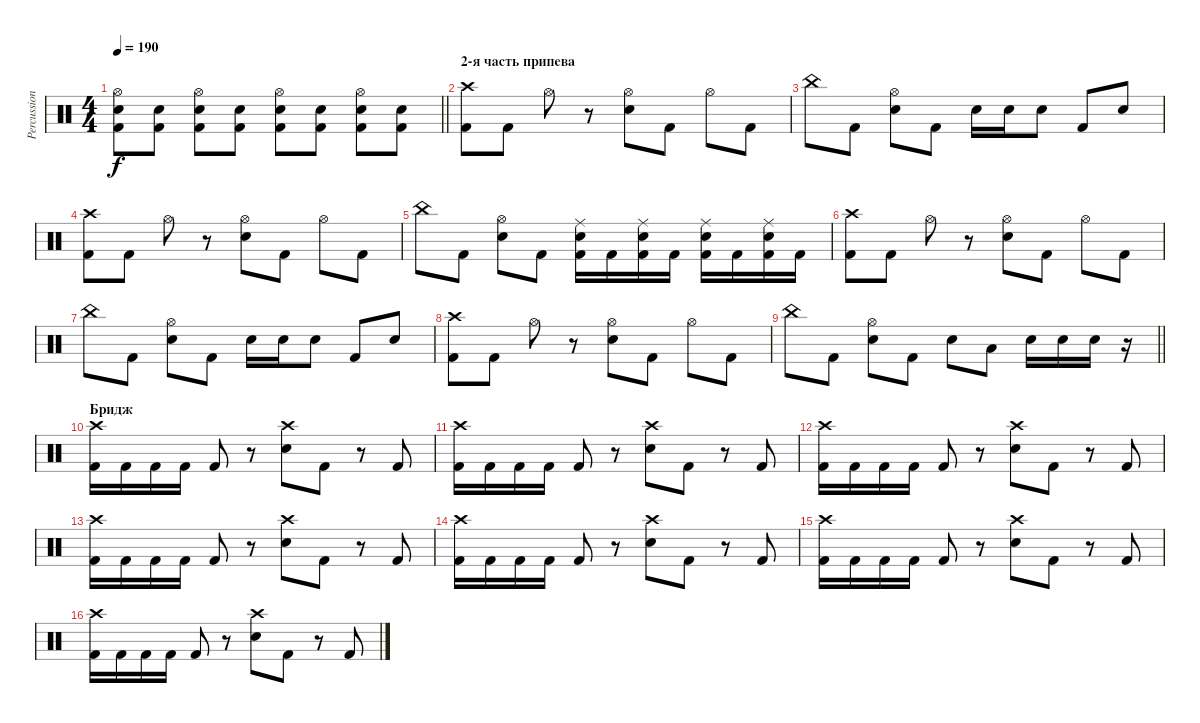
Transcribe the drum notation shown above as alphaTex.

\track ("Percussions" "Percussion") {instrument percussion}
\staff {score}
\articulation defaults
\ts (4 4)
\tempo 190
\clef neutral
\barLineRight lightlight
\ks c
("Kick (hit) 2" "Electric Snare (hit)" "Hi-Hat (open)").8{dy f} ("Kick (hit) 2" "Electric Snare (hit)").8 ("Kick (hit) 2" "Electric Snare (hit)" "Hi-Hat (open)").8 ("Kick (hit) 2" "Electric Snare (hit)").8 ("Kick (hit) 2" "Electric Snare (hit)" "Hi-Hat (open)").8 ("Kick (hit) 2" "Electric Snare (hit)").8 ("Kick (hit) 2" "Electric Snare (hit)" "Hi-Hat (open)").8 ("Kick (hit) 2" "Electric Snare (hit)").8 |
\section ("" "2-я часть припева")
("Kick (hit) 2" "Crash high (hit)").8 "Kick (hit) 2".8 "Hi-Hat (open)".8 r.8 ("Electric Snare (hit)" "Hi-Hat (open)").8 "Kick (hit) 2".8 "Hi-Hat (open)".8 "Kick (hit) 2".8 |
"China (hit)".8 "Kick (hit) 2".8 ("Electric Snare (hit)" "Hi-Hat (open)").8 "Kick (hit) 2".8 "Electric Snare (hit)".16 "Electric Snare (hit)".16 "Electric Snare (hit)".8 "Kick (hit) 2".8 "Electric Snare (hit)".8 |
("Kick (hit) 2" "Crash high (hit)").8 "Kick (hit) 2".8 "Hi-Hat (open)".8 r.8 ("Electric Snare (hit)" "Hi-Hat (open)").8 "Kick (hit) 2".8 "Hi-Hat (open)".8 "Kick (hit) 2".8 |
"China (hit)".8 "Kick (hit) 2".8 ("Electric Snare (hit)" "Hi-Hat (open)").8 "Kick (hit) 2".8 ("Kick (hit) 2" "Electric Snare (hit)" "Ride (middle)").16 "Kick (hit) 2".16 ("Kick (hit) 2" "Electric Snare (hit)" "Ride (middle)").16 "Kick (hit) 2".16 ("Kick (hit) 2" "Electric Snare (hit)" "Ride (middle)").16 "Kick (hit) 2".16 ("Kick (hit) 2" "Electric Snare (hit)" "Ride (middle)").16 "Kick (hit) 2".16 |
("Kick (hit) 2" "Crash high (hit)").8 "Kick (hit) 2".8 "Hi-Hat (open)".8 r.8 ("Electric Snare (hit)" "Hi-Hat (open)").8 "Kick (hit) 2".8 "Hi-Hat (open)".8 "Kick (hit) 2".8 |
"China (hit)".8 "Kick (hit) 2".8 ("Electric Snare (hit)" "Hi-Hat (open)").8 "Kick (hit) 2".8 "Electric Snare (hit)".16 "Electric Snare (hit)".16 "Electric Snare (hit)".8 "Kick (hit) 2".8 "Electric Snare (hit)".8 |
("Kick (hit) 2" "Crash high (hit)").8 "Kick (hit) 2".8 "Hi-Hat (open)".8 r.8 ("Electric Snare (hit)" "Hi-Hat (open)").8 "Kick (hit) 2".8 "Hi-Hat (open)".8 "Kick (hit) 2".8 |
\barLineRight lightlight "China (hit)".8 "Kick (hit) 2".8
("Electric Snare (hit)" "Hi-Hat (open)").8 "Kick (hit) 2".8 "Electric Snare (hit)".8 "Low Floor Tom (hit)".8 "Electric Snare (hit)".16 "Electric Snare (hit)".16 "Electric Snare (hit)".16 r.16 |
\section ("" "Бридж")
("Crash high (hit)" "Kick (hit) 2").16 "Kick (hit) 2".16 "Kick (hit) 2".16 "Kick (hit) 2".16 "Kick (hit) 2".8 r.8 ("Crash high (hit)" "Electric Snare (hit)").8 "Kick (hit) 2".8 r.8 "Kick (hit) 2".8 |
("Crash high (hit)" "Kick (hit) 2").16 "Kick (hit) 2".16 "Kick (hit) 2".16 "Kick (hit) 2".16 "Kick (hit) 2".8 r.8 ("Crash high (hit)" "Electric Snare (hit)").8 "Kick (hit) 2".8 r.8 "Kick (hit) 2".8 |
("Crash high (hit)" "Kick (hit) 2").16 "Kick (hit) 2".16 "Kick (hit) 2".16 "Kick (hit) 2".16 "Kick (hit) 2".8 r.8 ("Crash high (hit)" "Electric Snare (hit)").8 "Kick (hit) 2".8 r.8 "Kick (hit) 2".8 |
("Crash high (hit)" "Kick (hit) 2").16 "Kick (hit) 2".16 "Kick (hit) 2".16 "Kick (hit) 2".16 "Kick (hit) 2".8 r.8 ("Crash high (hit)" "Electric Snare (hit)").8 "Kick (hit) 2".8 r.8 "Kick (hit) 2".8 |
("Crash high (hit)" "Kick (hit) 2").16 "Kick (hit) 2".16 "Kick (hit) 2".16 "Kick (hit) 2".16 "Kick (hit) 2".8 r.8 ("Crash high (hit)" "Electric Snare (hit)").8 "Kick (hit) 2".8 r.8 "Kick (hit) 2".8 |
("Crash high (hit)" "Kick (hit) 2").16 "Kick (hit) 2".16 "Kick (hit) 2".16 "Kick (hit) 2".16 "Kick (hit) 2".8 r.8 ("Crash high (hit)" "Electric Snare (hit)").8 "Kick (hit) 2".8 r.8 "Kick (hit) 2".8 |
("Crash high (hit)" "Kick (hit) 2").16 "Kick (hit) 2".16 "Kick (hit) 2".16 "Kick (hit) 2".16 "Kick (hit) 2".8 r.8 ("Crash high (hit)" "Electric Snare (hit)").8 "Kick (hit) 2".8 r.8 "Kick (hit) 2".8
